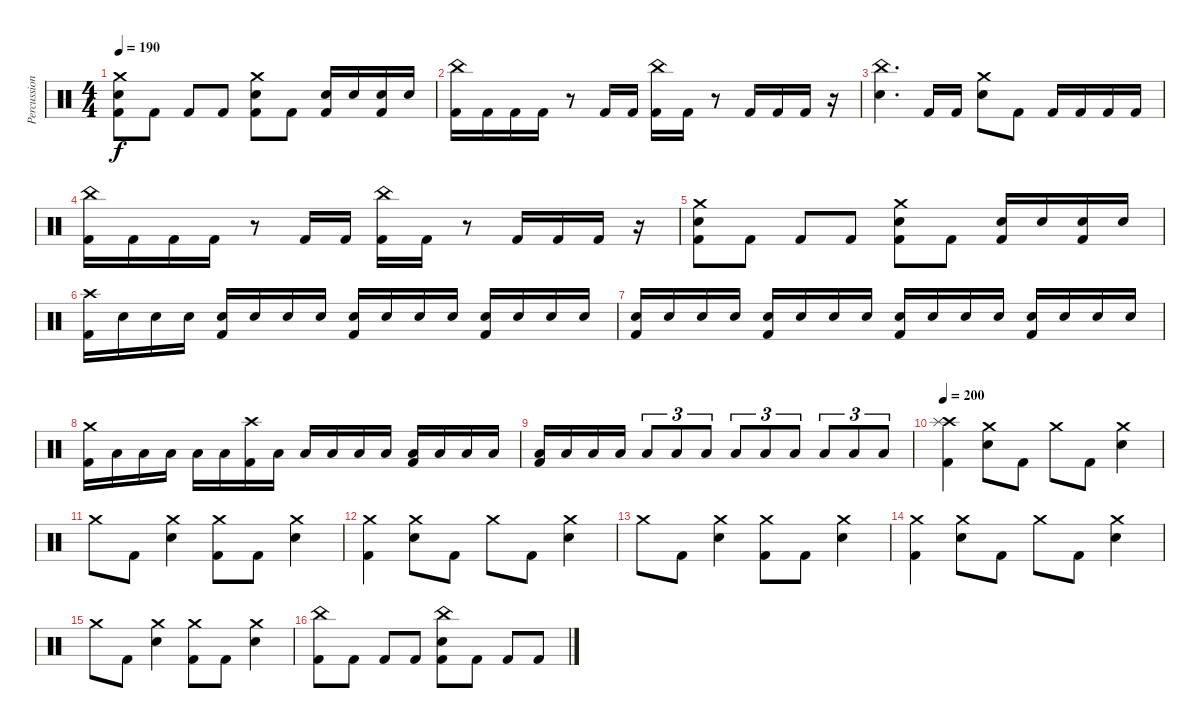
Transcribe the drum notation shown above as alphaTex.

\track ("Percussion" "Percussion") {instrument percussion}
\staff {score}
\articulation defaults
\ts (4 4)
\tempo 190
\clef neutral
\ks c
("Crash medium (hit)" "Electric Snare (hit)" "Kick (hit) 2").8{dy f} "Kick (hit) 2".8 "Kick (hit) 2".8 "Kick (hit) 2".8 ("Crash medium (hit)" "Electric Snare (hit)" "Kick (hit) 2").8 "Kick (hit) 2".8 ("Electric Snare (hit)" "Kick (hit) 2").16 "Electric Snare (hit)".16 ("Electric Snare (hit)" "Kick (hit) 2").16 "Electric Snare (hit)".16 |
("China (hit)" "Kick (hit) 2").16 "Kick (hit) 2".16 "Kick (hit) 2".16 "Kick (hit) 2".16 r.8 "Kick (hit) 2".16 "Kick (hit) 2".16 ("China (hit)" "Kick (hit) 2").16 "Kick (hit) 2".16 r.8 "Kick (hit) 2".16 "Kick (hit) 2".16 "Kick (hit) 2".16 r.16 |
("China (hit)" "Electric Snare (hit)").4{d} "Kick (hit) 2".16 "Kick (hit) 2".16 ("Crash medium (hit)" "Electric Snare (hit)").8 "Kick (hit) 2".8 "Kick (hit) 2".16 "Kick (hit) 2".16 "Kick (hit) 2".16 "Kick (hit) 2".16 |
("China (hit)" "Kick (hit) 2").16 "Kick (hit) 2".16 "Kick (hit) 2".16 "Kick (hit) 2".16 r.8 "Kick (hit) 2".16 "Kick (hit) 2".16 ("China (hit)" "Kick (hit) 2").16 "Kick (hit) 2".16 r.8 "Kick (hit) 2".16 "Kick (hit) 2".16 "Kick (hit) 2".16 r.16 |
("Crash medium (hit)" "Electric Snare (hit)" "Kick (hit) 2").8 "Kick (hit) 2".8 "Kick (hit) 2".8 "Kick (hit) 2".8 ("Crash medium (hit)" "Electric Snare (hit)" "Kick (hit) 2").8 "Kick (hit) 2".8 ("Electric Snare (hit)" "Kick (hit) 2").16 "Electric Snare (hit)".16 ("Electric Snare (hit)" "Kick (hit) 2").16 "Electric Snare (hit)".16 |
("Crash high (hit)" "Kick (hit) 2").16 "Electric Snare (hit)".16 "Electric Snare (hit)".16 "Electric Snare (hit)".16 ("Electric Snare (hit)" "Kick (hit) 2").16 "Electric Snare (hit)".16 "Electric Snare (hit)".16 "Electric Snare (hit)".16 ("Electric Snare (hit)" "Kick (hit) 2").16 "Electric Snare (hit)".16 "Electric Snare (hit)".16 "Electric Snare (hit)".16 ("Electric Snare (hit)" "Kick (hit) 2").16 "Electric Snare (hit)".16 "Electric Snare (hit)".16 "Electric Snare (hit)".16 |
("Electric Snare (hit)" "Kick (hit) 2").16 "Electric Snare (hit)".16 "Electric Snare (hit)".16 "Electric Snare (hit)".16 ("Electric Snare (hit)" "Kick (hit) 2").16 "Electric Snare (hit)".16 "Electric Snare (hit)".16 "Electric Snare (hit)".16 ("Electric Snare (hit)" "Kick (hit) 2").16 "Electric Snare (hit)".16 "Electric Snare (hit)".16 "Electric Snare (hit)".16 ("Electric Snare (hit)" "Kick (hit) 2").16 "Electric Snare (hit)".16 "Electric Snare (hit)".16 "Electric Snare (hit)".16 |
("Crash medium (hit)" "Kick (hit) 2").16 "Low Tom (hit)".16 "Low Tom (hit)".16 "Low Tom (hit)".16 "Low Tom (hit)".16 "Low Tom (hit)".16 ("Crash high (hit)" "Kick (hit) 2").16 "Low Floor Tom (hit)".16 "Low Floor Tom (hit)".16 "Low Floor Tom (hit)".16 "Low Floor Tom (hit)".16 "Low Floor Tom (hit)".16 ("Low Floor Tom (hit)" "Kick (hit) 2").16 "Low Floor Tom (hit)".16 "Low Floor Tom (hit)".16 "Low Floor Tom (hit)".16 |
("Low Tom (hit)" "Kick (hit) 2").16 "Low Tom (hit)".16 "Low Tom (hit)".16 "Low Tom (hit)".16 "Low Tom (hit)".8{tu (3 2)} "Low Tom (hit)".8{tu (3 2)} "Low Tom (hit)".8{tu (3 2)} "Low Floor Tom (hit)".8{tu (3 2)} "Low Floor Tom (hit)".8{tu (3 2)} "Low Floor Tom (hit)".8{tu (3 2)} "Low Floor Tom (hit)".8{tu (3 2)} "Low Floor Tom (hit)".8{tu (3 2)} "Low Floor Tom (hit)".8{tu (3 2)} |
\tempo 200
("Crash high (hit)" "Splash (hit)" "Kick (hit) 2").4 ("Crash medium (hit)" "Electric Snare (hit)").8 "Kick (hit) 2".8 "Crash medium (hit)".8 "Kick (hit) 2".8 ("Crash medium (hit)" "Electric Snare (hit)").4 |
"Crash medium (hit)".8 "Kick (hit) 2".8 ("Crash medium (hit)" "Electric Snare (hit)").4 ("Crash medium (hit)" "Kick (hit) 2").8 "Kick (hit) 2".8 ("Crash medium (hit)" "Electric Snare (hit)").4 |
("Crash medium (hit)" "Kick (hit) 2").4 ("Crash medium (hit)" "Electric Snare (hit)").8 "Kick (hit) 2".8 "Crash medium (hit)".8 "Kick (hit) 2".8 ("Crash medium (hit)" "Electric Snare (hit)").4 |
"Crash medium (hit)".8 "Kick (hit) 2".8 ("Crash medium (hit)" "Electric Snare (hit)").4 ("Crash medium (hit)" "Kick (hit) 2").8 "Kick (hit) 2".8 ("Crash medium (hit)" "Electric Snare (hit)").4 |
("Crash medium (hit)" "Kick (hit) 2").4 ("Crash medium (hit)" "Electric Snare (hit)").8 "Kick (hit) 2".8 "Crash medium (hit)".8 "Kick (hit) 2".8 ("Crash medium (hit)" "Electric Snare (hit)").4 |
"Crash medium (hit)".8 "Kick (hit) 2".8 ("Crash medium (hit)" "Electric Snare (hit)").4 ("Crash medium (hit)" "Kick (hit) 2").8 "Kick (hit) 2".8 ("Crash medium (hit)" "Electric Snare (hit)").4 |
("China (hit)" "Kick (hit) 2").8 "Kick (hit) 2".8 "Kick (hit) 2".8 "Kick (hit) 2".8 ("China (hit)" "Electric Snare (hit)" "Kick (hit) 2").8 "Kick (hit) 2".8 "Kick (hit) 2".8 "Kick (hit) 2".8
